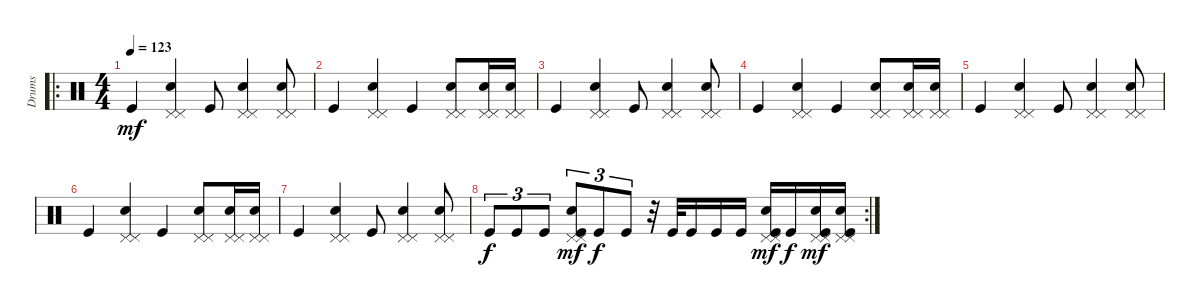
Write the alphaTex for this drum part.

\track ("Drums" "Drums") {instrument percussion}
\staff {score}
\articulation defaults
\ro
\ts (4 4)
\tempo 123
\clef neutral
\ks c "Kick (hit)".4{dy mf}
("Pedal Hi-Hat (hit)" "Electric Snare (hit)" "Pedal Hi-Hat (hit)").4 "Kick (hit)".8 ("Pedal Hi-Hat (hit)" "Electric Snare (hit)" "Pedal Hi-Hat (hit)").4 ("Pedal Hi-Hat (hit)" "Electric Snare (hit)" "Pedal Hi-Hat (hit)").8 |
"Kick (hit)".4 ("Pedal Hi-Hat (hit)" "Electric Snare (hit)" "Pedal Hi-Hat (hit)").4 "Kick (hit)".4 ("Pedal Hi-Hat (hit)" "Electric Snare (hit)" "Pedal Hi-Hat (hit)").8 ("Pedal Hi-Hat (hit)" "Electric Snare (hit)" "Pedal Hi-Hat (hit)").16 ("Pedal Hi-Hat (hit)" "Electric Snare (hit)" "Pedal Hi-Hat (hit)").16 |
"Kick (hit)".4 ("Pedal Hi-Hat (hit)" "Electric Snare (hit)" "Pedal Hi-Hat (hit)").4 "Kick (hit)".8 ("Pedal Hi-Hat (hit)" "Electric Snare (hit)" "Pedal Hi-Hat (hit)").4 ("Pedal Hi-Hat (hit)" "Electric Snare (hit)" "Pedal Hi-Hat (hit)").8 |
"Kick (hit)".4 ("Pedal Hi-Hat (hit)" "Electric Snare (hit)" "Pedal Hi-Hat (hit)").4 "Kick (hit)".4 ("Pedal Hi-Hat (hit)" "Electric Snare (hit)" "Pedal Hi-Hat (hit)").8 ("Pedal Hi-Hat (hit)" "Electric Snare (hit)" "Pedal Hi-Hat (hit)").16 ("Pedal Hi-Hat (hit)" "Electric Snare (hit)" "Pedal Hi-Hat (hit)").16 |
"Kick (hit)".4 ("Pedal Hi-Hat (hit)" "Electric Snare (hit)" "Pedal Hi-Hat (hit)").4 "Kick (hit)".8 ("Pedal Hi-Hat (hit)" "Electric Snare (hit)" "Pedal Hi-Hat (hit)").4 ("Pedal Hi-Hat (hit)" "Electric Snare (hit)" "Pedal Hi-Hat (hit)").8 |
"Kick (hit)".4 ("Pedal Hi-Hat (hit)" "Electric Snare (hit)" "Pedal Hi-Hat (hit)").4 "Kick (hit)".4 ("Pedal Hi-Hat (hit)" "Electric Snare (hit)" "Pedal Hi-Hat (hit)").8 ("Pedal Hi-Hat (hit)" "Electric Snare (hit)" "Pedal Hi-Hat (hit)").16 ("Pedal Hi-Hat (hit)" "Electric Snare (hit)" "Pedal Hi-Hat (hit)").16 |
"Kick (hit)".4 ("Pedal Hi-Hat (hit)" "Electric Snare (hit)" "Pedal Hi-Hat (hit)").4 "Kick (hit)".8 ("Pedal Hi-Hat (hit)" "Electric Snare (hit)" "Pedal Hi-Hat (hit)").4 ("Pedal Hi-Hat (hit)" "Electric Snare (hit)" "Pedal Hi-Hat (hit)").8 |
\rc 2 "Kick (hit)".8{tu (3 2) dy f} "Kick (hit)".8{tu (3 2)} "Kick (hit)".8{tu (3 2)}
("Pedal Hi-Hat (hit)" "Electric Snare (hit)" "Pedal Hi-Hat (hit)" "Kick (hit)").8{tu (3 2) dy mf} "Kick (hit)".8{tu (3 2) dy f} "Kick (hit)".8{tu (3 2)} r.32 "Kick (hit)".32 "Kick (hit)".16 "Kick (hit)".16 "Kick (hit)".16 ("Pedal Hi-Hat (hit)" "Electric Snare (hit)" "Pedal Hi-Hat (hit)" "Kick (hit)").16{dy mf} "Kick (hit)".16{dy f} ("Pedal Hi-Hat (hit)" "Electric Snare (hit)" "Pedal Hi-Hat (hit)" "Kick (hit)").16{dy mf} ("Pedal Hi-Hat (hit)" "Electric Snare (hit)" "Pedal Hi-Hat (hit)" "Kick (hit)").16
